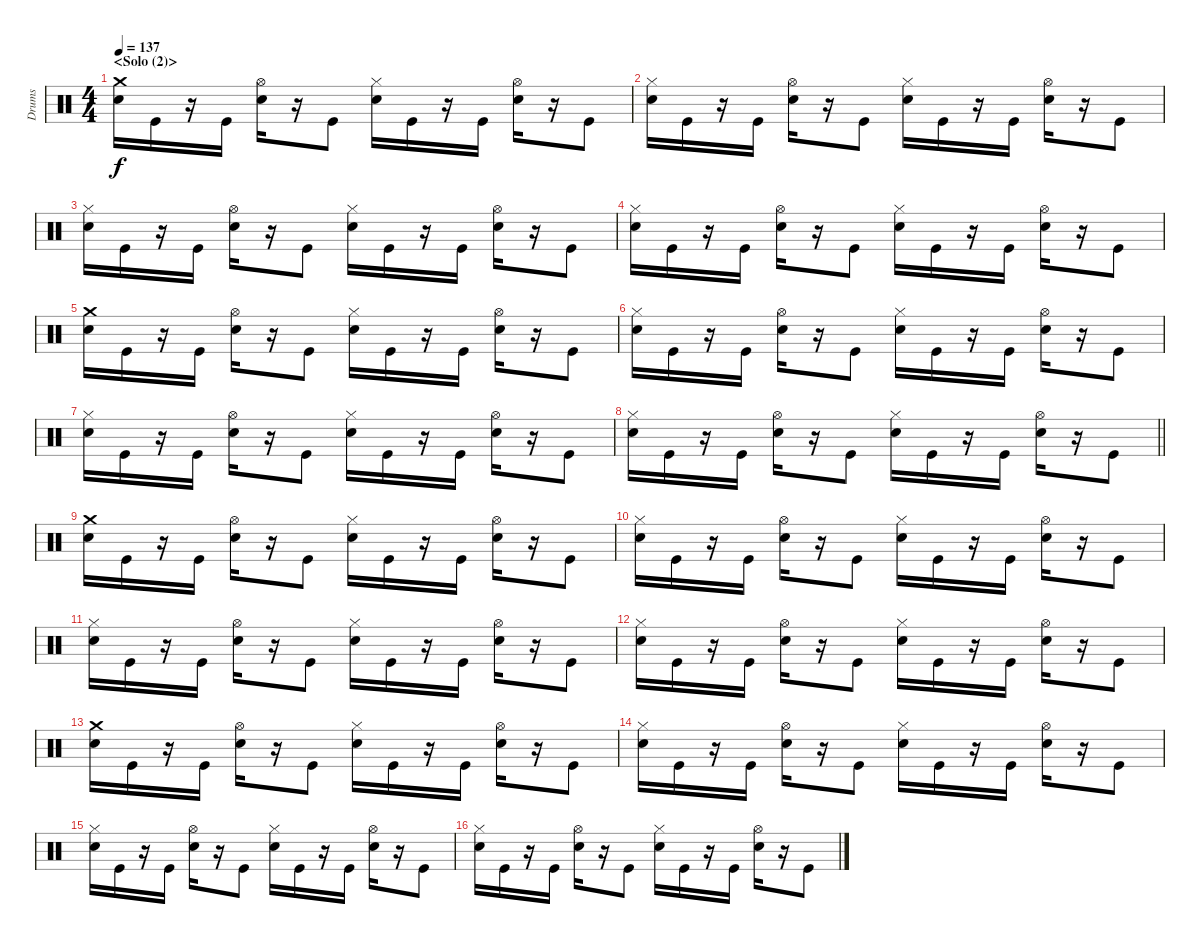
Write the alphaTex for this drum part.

\track ("Drums" "Drums") {instrument percussion}
\staff {score}
\articulation defaults
\ts (4 4)
\section ("" "<Solo (2)>")
\tempo 137
\clef neutral
\ks c
("Crash medium (hit)" "Snare (hit) 2").16{dy f} "Kick (hit)".16 r.16 "Kick (hit)".16 ("Hi-Hat (open)" "Snare (hit) 2").16 r.16 "Kick (hit)".8 ("Hi-Hat (closed)" "Snare (hit) 2").16 "Kick (hit)".16 r.16 "Kick (hit)".16 ("Hi-Hat (open)" "Snare (hit) 2").16 r.16 "Kick (hit)".8 |
("Hi-Hat (closed)" "Snare (hit) 2").16 "Kick (hit)".16 r.16 "Kick (hit)".16 ("Hi-Hat (open)" "Snare (hit) 2").16 r.16 "Kick (hit)".8 ("Hi-Hat (closed)" "Snare (hit) 2").16 "Kick (hit)".16 r.16 "Kick (hit)".16 ("Hi-Hat (open)" "Snare (hit) 2").16 r.16 "Kick (hit)".8 |
("Hi-Hat (closed)" "Snare (hit) 2").16 "Kick (hit)".16 r.16 "Kick (hit)".16 ("Hi-Hat (open)" "Snare (hit) 2").16 r.16 "Kick (hit)".8 ("Hi-Hat (closed)" "Snare (hit) 2").16 "Kick (hit)".16 r.16 "Kick (hit)".16 ("Hi-Hat (open)" "Snare (hit) 2").16 r.16 "Kick (hit)".8 |
("Hi-Hat (closed)" "Snare (hit) 2").16 "Kick (hit)".16 r.16 "Kick (hit)".16 ("Hi-Hat (open)" "Snare (hit) 2").16 r.16 "Kick (hit)".8 ("Hi-Hat (closed)" "Snare (hit) 2").16 "Kick (hit)".16 r.16 "Kick (hit)".16 ("Hi-Hat (open)" "Snare (hit) 2").16 r.16 "Kick (hit)".8 |
("Crash medium (hit)" "Snare (hit) 2").16 "Kick (hit)".16 r.16 "Kick (hit)".16 ("Hi-Hat (open)" "Snare (hit) 2").16 r.16 "Kick (hit)".8 ("Hi-Hat (closed)" "Snare (hit) 2").16 "Kick (hit)".16 r.16 "Kick (hit)".16 ("Hi-Hat (open)" "Snare (hit) 2").16 r.16 "Kick (hit)".8 |
("Hi-Hat (closed)" "Snare (hit) 2").16 "Kick (hit)".16 r.16 "Kick (hit)".16 ("Hi-Hat (open)" "Snare (hit) 2").16 r.16 "Kick (hit)".8 ("Hi-Hat (closed)" "Snare (hit) 2").16 "Kick (hit)".16 r.16 "Kick (hit)".16 ("Hi-Hat (open)" "Snare (hit) 2").16 r.16 "Kick (hit)".8 |
("Hi-Hat (closed)" "Snare (hit) 2").16 "Kick (hit)".16 r.16 "Kick (hit)".16 ("Hi-Hat (open)" "Snare (hit) 2").16 r.16 "Kick (hit)".8 ("Hi-Hat (closed)" "Snare (hit) 2").16 "Kick (hit)".16 r.16 "Kick (hit)".16 ("Hi-Hat (open)" "Snare (hit) 2").16 r.16 "Kick (hit)".8 |
\barLineRight lightlight
("Hi-Hat (closed)" "Snare (hit) 2").16 "Kick (hit)".16 r.16 "Kick (hit)".16 ("Hi-Hat (open)" "Snare (hit) 2").16 r.16 "Kick (hit)".8 ("Hi-Hat (closed)" "Snare (hit) 2").16 "Kick (hit)".16 r.16 "Kick (hit)".16 ("Hi-Hat (open)" "Snare (hit) 2").16 r.16 "Kick (hit)".8 |
\section ("" "")
("Crash medium (hit)" "Snare (hit) 2").16 "Kick (hit)".16 r.16 "Kick (hit)".16 ("Hi-Hat (open)" "Snare (hit) 2").16 r.16 "Kick (hit)".8 ("Hi-Hat (closed)" "Snare (hit) 2").16 "Kick (hit)".16 r.16 "Kick (hit)".16 ("Hi-Hat (open)" "Snare (hit) 2").16 r.16 "Kick (hit)".8 |
("Hi-Hat (closed)" "Snare (hit) 2").16 "Kick (hit)".16 r.16 "Kick (hit)".16 ("Hi-Hat (open)" "Snare (hit) 2").16 r.16 "Kick (hit)".8 ("Hi-Hat (closed)" "Snare (hit) 2").16 "Kick (hit)".16 r.16 "Kick (hit)".16 ("Hi-Hat (open)" "Snare (hit) 2").16 r.16 "Kick (hit)".8 |
("Hi-Hat (closed)" "Snare (hit) 2").16 "Kick (hit)".16 r.16 "Kick (hit)".16 ("Hi-Hat (open)" "Snare (hit) 2").16 r.16 "Kick (hit)".8 ("Hi-Hat (closed)" "Snare (hit) 2").16 "Kick (hit)".16 r.16 "Kick (hit)".16 ("Hi-Hat (open)" "Snare (hit) 2").16 r.16 "Kick (hit)".8 |
("Hi-Hat (closed)" "Snare (hit) 2").16 "Kick (hit)".16 r.16 "Kick (hit)".16 ("Hi-Hat (open)" "Snare (hit) 2").16 r.16 "Kick (hit)".8 ("Hi-Hat (closed)" "Snare (hit) 2").16 "Kick (hit)".16 r.16 "Kick (hit)".16 ("Hi-Hat (open)" "Snare (hit) 2").16 r.16 "Kick (hit)".8 |
("Crash medium (hit)" "Snare (hit) 2").16 "Kick (hit)".16 r.16 "Kick (hit)".16 ("Hi-Hat (open)" "Snare (hit) 2").16 r.16 "Kick (hit)".8 ("Hi-Hat (closed)" "Snare (hit) 2").16 "Kick (hit)".16 r.16 "Kick (hit)".16 ("Hi-Hat (open)" "Snare (hit) 2").16 r.16 "Kick (hit)".8 |
("Hi-Hat (closed)" "Snare (hit) 2").16 "Kick (hit)".16 r.16 "Kick (hit)".16 ("Hi-Hat (open)" "Snare (hit) 2").16 r.16 "Kick (hit)".8 ("Hi-Hat (closed)" "Snare (hit) 2").16 "Kick (hit)".16 r.16 "Kick (hit)".16 ("Hi-Hat (open)" "Snare (hit) 2").16 r.16 "Kick (hit)".8 |
("Hi-Hat (closed)" "Snare (hit) 2").16 "Kick (hit)".16 r.16 "Kick (hit)".16 ("Hi-Hat (open)" "Snare (hit) 2").16 r.16 "Kick (hit)".8 ("Hi-Hat (closed)" "Snare (hit) 2").16 "Kick (hit)".16 r.16 "Kick (hit)".16 ("Hi-Hat (open)" "Snare (hit) 2").16 r.16 "Kick (hit)".8 |
("Hi-Hat (closed)" "Snare (hit) 2").16 "Kick (hit)".16 r.16 "Kick (hit)".16 ("Hi-Hat (open)" "Snare (hit) 2").16 r.16 "Kick (hit)".8 ("Hi-Hat (closed)" "Snare (hit) 2").16 "Kick (hit)".16 r.16 "Kick (hit)".16 ("Hi-Hat (open)" "Snare (hit) 2").16 r.16 "Kick (hit)".8
